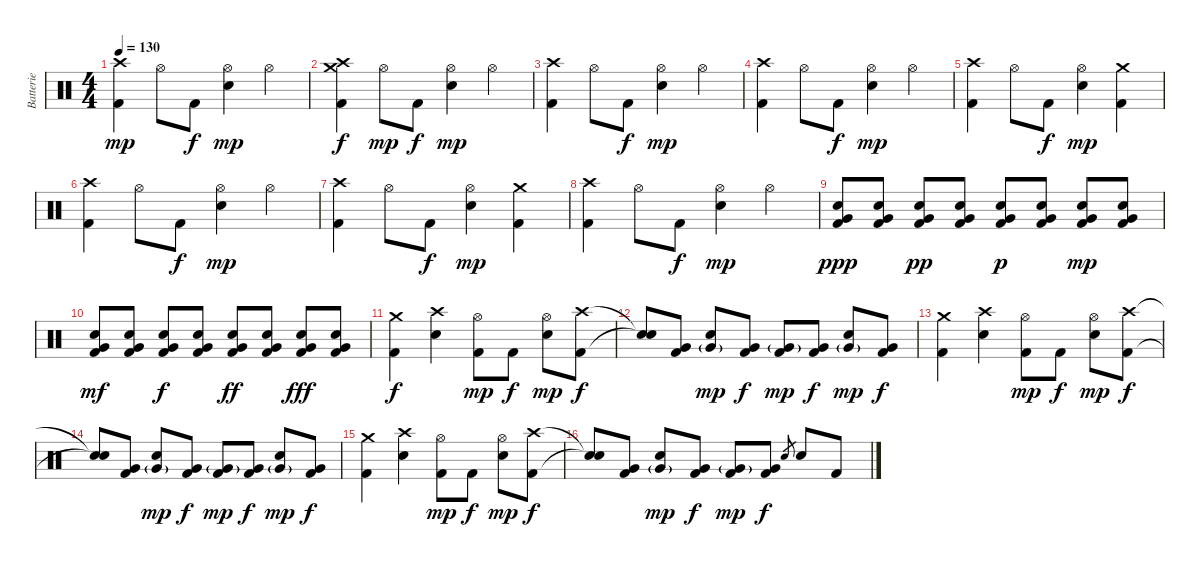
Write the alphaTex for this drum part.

\track ("Batterie" "Batterie") {instrument percussion}
\staff {score}
\articulation defaults
\ts (4 4)
\tempo 130
\clef neutral
\ks c
("Crash high (hit)" "Kick (hit) 2").4{dy mp} "Hi-Hat (open)".8 "Kick (hit) 2".8{dy f} ("Hi-Hat (open)" "Electric Snare (hit)").4{dy mp} "Hi-Hat (open)".4 |
("Crash medium (hit)" "Crash high (hit)" "Kick (hit) 2").4{dy f} "Hi-Hat (open)".8{dy mp} "Kick (hit) 2".8{dy f} ("Hi-Hat (open)" "Electric Snare (hit)").4{dy mp} "Hi-Hat (open)".4 |
("Crash high (hit)" "Kick (hit) 2").4 "Hi-Hat (open)".8 "Kick (hit) 2".8{dy f} ("Hi-Hat (open)" "Electric Snare (hit)").4{dy mp} "Hi-Hat (open)".4 |
("Crash high (hit)" "Kick (hit) 2").4 "Hi-Hat (open)".8 "Kick (hit) 2".8{dy f} ("Hi-Hat (open)" "Electric Snare (hit)").4{dy mp} "Hi-Hat (open)".4 |
("Crash high (hit)" "Kick (hit) 2").4 "Hi-Hat (open)".8 "Kick (hit) 2".8{dy f} ("Hi-Hat (open)" "Electric Snare (hit)").4{dy mp} ("Crash medium (hit)" "Kick (hit) 2").4 |
("Crash high (hit)" "Kick (hit) 2").4 "Hi-Hat (open)".8 "Kick (hit) 2".8{dy f} ("Hi-Hat (open)" "Electric Snare (hit)").4{dy mp} "Hi-Hat (open)".4 |
("Crash high (hit)" "Kick (hit) 2").4 "Hi-Hat (open)".8 "Kick (hit) 2".8{dy f} ("Hi-Hat (open)" "Electric Snare (hit)").4{dy mp} ("Crash medium (hit)" "Kick (hit) 2").4 |
("Crash high (hit)" "Kick (hit) 2").4 "Hi-Hat (open)".8 "Kick (hit) 2".8{dy f} ("Hi-Hat (open)" "Electric Snare (hit)").4{dy mp} "Hi-Hat (open)".4 |
("Electric Snare (hit)" "Very Low Tom (hit)" "Kick (hit) 2").8{dy ppp} ("Electric Snare (hit)" "Very Low Tom (hit)" "Kick (hit) 2").8 ("Electric Snare (hit)" "Very Low Tom (hit)" "Kick (hit) 2").8{dy pp} ("Electric Snare (hit)" "Very Low Tom (hit)" "Kick (hit) 2").8 ("Electric Snare (hit)" "Very Low Tom (hit)" "Kick (hit) 2").8{dy p} ("Electric Snare (hit)" "Very Low Tom (hit)" "Kick (hit) 2").8 ("Electric Snare (hit)" "Very Low Tom (hit)" "Kick (hit) 2").8{dy mp} ("Electric Snare (hit)" "Very Low Tom (hit)" "Kick (hit) 2").8 |
("Electric Snare (hit)" "Very Low Tom (hit)" "Kick (hit) 2").8{dy mf} ("Electric Snare (hit)" "Very Low Tom (hit)" "Kick (hit) 2").8 ("Electric Snare (hit)" "Very Low Tom (hit)" "Kick (hit) 2").8{dy f} ("Electric Snare (hit)" "Very Low Tom (hit)" "Kick (hit) 2").8 ("Electric Snare (hit)" "Very Low Tom (hit)" "Kick (hit) 2").8{dy ff} ("Electric Snare (hit)" "Very Low Tom (hit)" "Kick (hit) 2").8 ("Electric Snare (hit)" "Very Low Tom (hit)" "Kick (hit) 2").8{dy fff} ("Electric Snare (hit)" "Very Low Tom (hit)" "Kick (hit) 2").8 |
("Crash medium (hit)" "Kick (hit) 2").4{dy f} ("Crash high (hit)" "Electric Snare (hit)").4 ("Hi-Hat (open)" "Kick (hit) 2").8{dy mp} "Kick (hit) 2".8{dy f} ("Hi-Hat (open)" "Electric Snare (hit)").8{dy mp} ("Crash high (hit)" "Kick (hit) 2").8{dy f} |
("Snare (hit)"{t} "Snare (hit)"{t}).8 ("Very Low Tom (hit)" "Kick (hit) 2").8 ("Electric Snare (hit)" "Very Low Tom (hit)"{g}).8{dy mp} ("Very Low Tom (hit)" "Kick (hit) 2").8{dy f} ("Very Low Tom (hit)"{g} "Kick (hit) 2").8{dy mp} ("Very Low Tom (hit)" "Kick (hit) 2").8{dy f} ("Electric Snare (hit)" "Very Low Tom (hit)"{g}).8{dy mp} ("Very Low Tom (hit)" "Kick (hit) 2").8{dy f} |
("Crash medium (hit)" "Kick (hit) 2").4 ("Crash high (hit)" "Electric Snare (hit)").4 ("Hi-Hat (open)" "Kick (hit) 2").8{dy mp} "Kick (hit) 2".8{dy f} ("Hi-Hat (open)" "Electric Snare (hit)").8{dy mp} ("Crash high (hit)" "Kick (hit) 2").8{dy f} |
("Snare (hit)"{t} "Snare (hit)"{t}).8 ("Very Low Tom (hit)" "Kick (hit) 2").8 ("Electric Snare (hit)" "Very Low Tom (hit)"{g}).8{dy mp} ("Very Low Tom (hit)" "Kick (hit) 2").8{dy f} ("Very Low Tom (hit)"{g} "Kick (hit) 2").8{dy mp} ("Very Low Tom (hit)" "Kick (hit) 2").8{dy f} ("Electric Snare (hit)" "Very Low Tom (hit)"{g}).8{dy mp} ("Very Low Tom (hit)" "Kick (hit) 2").8{dy f} |
("Crash medium (hit)" "Kick (hit) 2").4 ("Crash high (hit)" "Electric Snare (hit)").4 ("Hi-Hat (open)" "Kick (hit) 2").8{dy mp} "Kick (hit) 2".8{dy f} ("Hi-Hat (open)" "Electric Snare (hit)").8{dy mp} ("Crash high (hit)" "Kick (hit) 2").8{dy f} |
("Snare (hit)"{t} "Snare (hit)"{t}).8 ("Very Low Tom (hit)" "Kick (hit) 2").8 ("Electric Snare (hit)" "Very Low Tom (hit)"{g}).8{dy mp} ("Very Low Tom (hit)" "Kick (hit) 2").8{dy f} ("Very Low Tom (hit)"{g} "Kick (hit) 2").8{dy mp} ("Very Low Tom (hit)" "Kick (hit) 2").8{dy f} "Electric Snare (hit)".8{gr} "Electric Snare (hit)".8 "Kick (hit) 2".8
